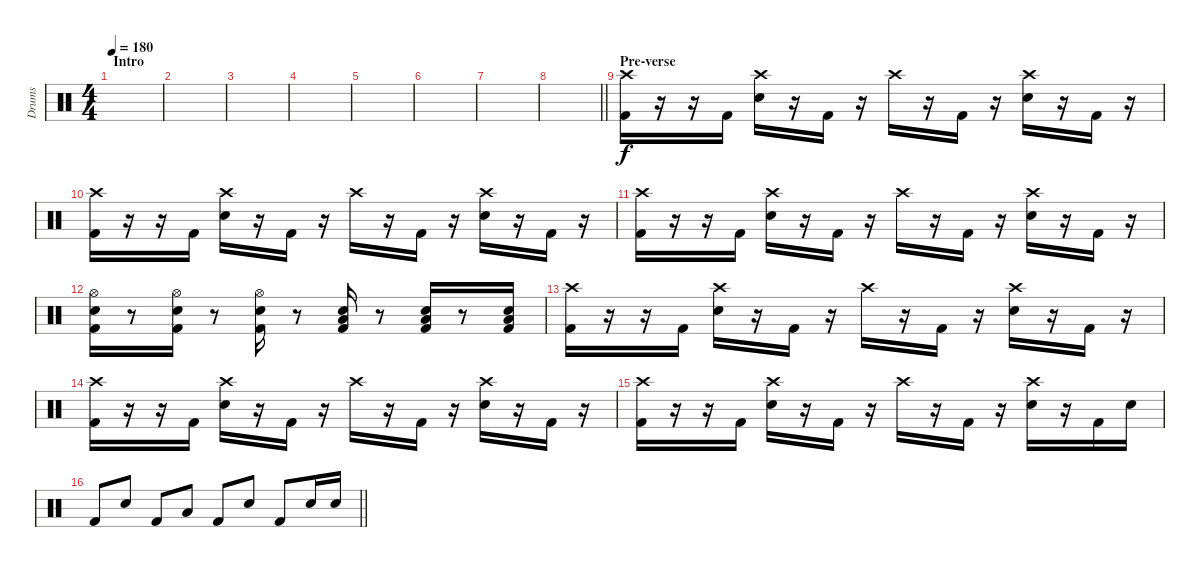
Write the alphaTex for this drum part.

\track ("Drums" "Drums") {instrument percussion}
\staff {score}
\articulation defaults
\ts (4 4)
\section ("" "Intro")
\tempo 180
\clef neutral
\ks c
|
|
|
|
|
|
|
\barLineRight lightlight
|
\section ("" "Pre-verse")
("Crash high (hit)" "Kick (hit) 2").16 r.16 r.16 "Kick (hit) 2".16 ("Crash high (hit)" "Electric Snare (hit)").16 r.16 "Kick (hit) 2".16 r.16 "Crash high (hit)".16 r.16 "Kick (hit) 2".16 r.16 ("Crash high (hit)" "Electric Snare (hit)").16 r.16 "Kick (hit) 2".16 r.16 |
("Crash high (hit)" "Kick (hit) 2").16 r.16 r.16 "Kick (hit) 2".16 ("Crash high (hit)" "Electric Snare (hit)").16 r.16 "Kick (hit) 2".16 r.16 "Crash high (hit)".16 r.16 "Kick (hit) 2".16 r.16 ("Crash high (hit)" "Electric Snare (hit)").16 r.16 "Kick (hit) 2".16 r.16 |
("Crash high (hit)" "Kick (hit) 2").16 r.16 r.16 "Kick (hit) 2".16 ("Crash high (hit)" "Electric Snare (hit)").16 r.16 "Kick (hit) 2".16 r.16 "Crash high (hit)".16 r.16 "Kick (hit) 2".16 r.16 ("Crash high (hit)" "Electric Snare (hit)").16 r.16 "Kick (hit) 2".16 r.16 |
("Hi-Hat (open)" "Electric Snare (hit)" "Kick (hit) 2").16 r.8 ("Hi-Hat (open)" "Electric Snare (hit)" "Kick (hit) 2").16 r.8 ("Hi-Hat (open)" "Electric Snare (hit)" "Kick (hit) 2").16 r.8 ("Low Floor Tom (hit)" "Electric Snare (hit)" "Kick (hit) 2").16 r.8 ("Low Floor Tom (hit)" "Electric Snare (hit)" "Kick (hit) 2").16 r.8 ("Low Floor Tom (hit)" "Electric Snare (hit)" "Kick (hit) 2").16 |
("Crash high (hit)" "Kick (hit) 2").16 r.16 r.16 "Kick (hit) 2".16 ("Crash high (hit)" "Electric Snare (hit)").16 r.16 "Kick (hit) 2".16 r.16 "Crash high (hit)".16 r.16 "Kick (hit) 2".16 r.16 ("Crash high (hit)" "Electric Snare (hit)").16 r.16 "Kick (hit) 2".16 r.16 |
("Crash high (hit)" "Kick (hit) 2").16 r.16 r.16 "Kick (hit) 2".16 ("Crash high (hit)" "Electric Snare (hit)").16 r.16 "Kick (hit) 2".16 r.16 "Crash high (hit)".16 r.16 "Kick (hit) 2".16 r.16 ("Crash high (hit)" "Electric Snare (hit)").16 r.16 "Kick (hit) 2".16 r.16 |
("Crash high (hit)" "Kick (hit) 2").16 r.16 r.16 "Kick (hit) 2".16 ("Crash high (hit)" "Electric Snare (hit)").16 r.16 "Kick (hit) 2".16 r.16 "Crash high (hit)".16 r.16 "Kick (hit) 2".16 r.16 ("Crash high (hit)" "Electric Snare (hit)").16 r.16 "Kick (hit) 2".16 "Electric Snare (hit)".16 |
\barLineRight lightlight "Kick (hit) 2".8 "Electric Snare (hit)".8 "Kick (hit) 2".8 "Low Tom (hit)".8 "Kick (hit) 2".8 "Electric Snare (hit)".8 "Kick (hit) 2".8 "Electric Snare (hit)".16 "Electric Snare (hit)".16
